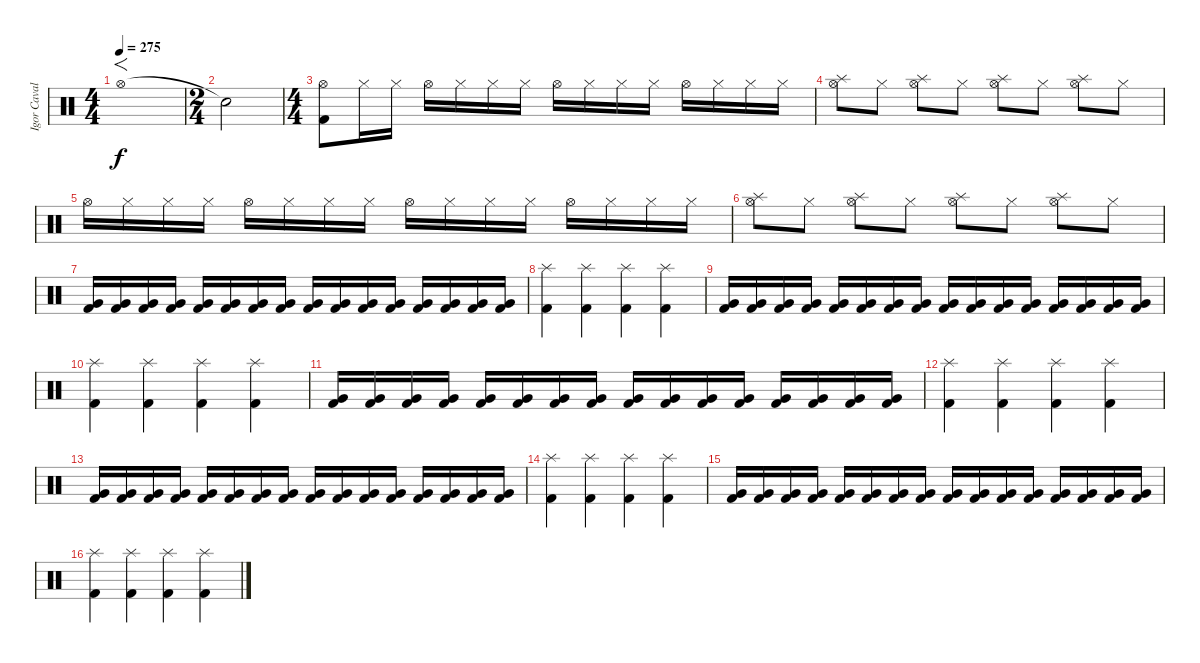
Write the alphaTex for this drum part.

\track ("Igor Cavalera" "Igor Caval") {instrument percussion}
\staff {score}
\articulation defaults
\ts (4 4)
\tempo 275
\tempo 230
\tempo 275
\clef neutral
\ks c "Hi-Hat (open)".1{f dy f}
|
\ts (2 4)
"Snare (hit)"{t}.2 |
\ts (4 4)
("Hi-Hat (open)" "Kick (hit) 2").8 "Hi-Hat (closed)".16 "Hi-Hat (closed)".16 "Hi-Hat (open)".16 "Hi-Hat (closed)".16 "Hi-Hat (closed)".16 "Hi-Hat (closed)".16 "Hi-Hat (open)".16 "Hi-Hat (closed)".16 "Hi-Hat (closed)".16 "Hi-Hat (closed)".16 "Hi-Hat (open)".16 "Hi-Hat (closed)".16 "Hi-Hat (closed)".16 "Hi-Hat (closed)".16 |
("Splash (hit)" "Hi-Hat (open)").8 "Hi-Hat (closed)".8 ("Splash (hit)" "Hi-Hat (open)").8 "Hi-Hat (closed)".8 ("Splash (hit)" "Hi-Hat (open)").8 "Hi-Hat (closed)".8 ("Splash (hit)" "Hi-Hat (open)").8 "Hi-Hat (closed)".8 |
"Hi-Hat (open)".16 "Hi-Hat (closed)".16 "Hi-Hat (closed)".16 "Hi-Hat (closed)".16 "Hi-Hat (open)".16 "Hi-Hat (closed)".16 "Hi-Hat (closed)".16 "Hi-Hat (closed)".16 "Hi-Hat (open)".16 "Hi-Hat (closed)".16 "Hi-Hat (closed)".16 "Hi-Hat (closed)".16 "Hi-Hat (open)".16 "Hi-Hat (closed)".16 "Hi-Hat (closed)".16 "Hi-Hat (closed)".16 |
("Splash (hit)" "Hi-Hat (open)").8 "Hi-Hat (closed)".8 ("Splash (hit)" "Hi-Hat (open)").8 "Hi-Hat (closed)".8 ("Splash (hit)" "Hi-Hat (open)").8 "Hi-Hat (closed)".8 ("Splash (hit)" "Hi-Hat (open)").8 "Hi-Hat (closed)".8 |
("Kick (hit) 2" "Very Low Tom (hit)").16 ("Kick (hit) 2" "Very Low Tom (hit)").16 ("Kick (hit) 2" "Very Low Tom (hit)").16 ("Kick (hit) 2" "Very Low Tom (hit)").16 ("Kick (hit) 2" "Very Low Tom (hit)").16 ("Kick (hit) 2" "Very Low Tom (hit)").16 ("Kick (hit) 2" "Very Low Tom (hit)").16 ("Kick (hit) 2" "Very Low Tom (hit)").16 ("Kick (hit) 2" "Very Low Tom (hit)").16 ("Kick (hit) 2" "Very Low Tom (hit)").16 ("Kick (hit) 2" "Very Low Tom (hit)").16 ("Kick (hit) 2" "Very Low Tom (hit)").16 ("Kick (hit) 2" "Very Low Tom (hit)").16 ("Kick (hit) 2" "Very Low Tom (hit)").16 ("Kick (hit) 2" "Very Low Tom (hit)").16 ("Kick (hit) 2" "Very Low Tom (hit)").16 |
("Splash (hit)" "Kick (hit) 2").4 ("Splash (hit)" "Kick (hit) 2").4 ("Splash (hit)" "Kick (hit) 2").4 ("Splash (hit)" "Kick (hit) 2").4 |
("Kick (hit) 2" "Very Low Tom (hit)").16 ("Kick (hit) 2" "Very Low Tom (hit)").16 ("Kick (hit) 2" "Very Low Tom (hit)").16 ("Kick (hit) 2" "Very Low Tom (hit)").16 ("Kick (hit) 2" "Very Low Tom (hit)").16 ("Kick (hit) 2" "Very Low Tom (hit)").16 ("Kick (hit) 2" "Very Low Tom (hit)").16 ("Kick (hit) 2" "Very Low Tom (hit)").16 ("Kick (hit) 2" "Very Low Tom (hit)").16 ("Kick (hit) 2" "Very Low Tom (hit)").16 ("Kick (hit) 2" "Very Low Tom (hit)").16 ("Kick (hit) 2" "Very Low Tom (hit)").16 ("Kick (hit) 2" "Very Low Tom (hit)").16 ("Kick (hit) 2" "Very Low Tom (hit)").16 ("Kick (hit) 2" "Very Low Tom (hit)").16 ("Kick (hit) 2" "Very Low Tom (hit)").16 |
("Splash (hit)" "Kick (hit) 2").4 ("Splash (hit)" "Kick (hit) 2").4 ("Splash (hit)" "Kick (hit) 2").4 ("Splash (hit)" "Kick (hit) 2").4 |
("Kick (hit) 2" "Very Low Tom (hit)").16 ("Kick (hit) 2" "Very Low Tom (hit)").16 ("Kick (hit) 2" "Very Low Tom (hit)").16 ("Kick (hit) 2" "Very Low Tom (hit)").16 ("Kick (hit) 2" "Very Low Tom (hit)").16 ("Kick (hit) 2" "Very Low Tom (hit)").16 ("Kick (hit) 2" "Very Low Tom (hit)").16 ("Kick (hit) 2" "Very Low Tom (hit)").16 ("Kick (hit) 2" "Very Low Tom (hit)").16 ("Kick (hit) 2" "Very Low Tom (hit)").16 ("Kick (hit) 2" "Very Low Tom (hit)").16 ("Kick (hit) 2" "Very Low Tom (hit)").16 ("Kick (hit) 2" "Very Low Tom (hit)").16 ("Kick (hit) 2" "Very Low Tom (hit)").16 ("Kick (hit) 2" "Very Low Tom (hit)").16 ("Kick (hit) 2" "Very Low Tom (hit)").16 |
("Splash (hit)" "Kick (hit) 2").4 ("Splash (hit)" "Kick (hit) 2").4 ("Splash (hit)" "Kick (hit) 2").4 ("Splash (hit)" "Kick (hit) 2").4 |
("Kick (hit) 2" "Very Low Tom (hit)").16 ("Kick (hit) 2" "Very Low Tom (hit)").16 ("Kick (hit) 2" "Very Low Tom (hit)").16 ("Kick (hit) 2" "Very Low Tom (hit)").16 ("Kick (hit) 2" "Very Low Tom (hit)").16 ("Kick (hit) 2" "Very Low Tom (hit)").16 ("Kick (hit) 2" "Very Low Tom (hit)").16 ("Kick (hit) 2" "Very Low Tom (hit)").16 ("Kick (hit) 2" "Very Low Tom (hit)").16 ("Kick (hit) 2" "Very Low Tom (hit)").16 ("Kick (hit) 2" "Very Low Tom (hit)").16 ("Kick (hit) 2" "Very Low Tom (hit)").16 ("Kick (hit) 2" "Very Low Tom (hit)").16 ("Kick (hit) 2" "Very Low Tom (hit)").16 ("Kick (hit) 2" "Very Low Tom (hit)").16 ("Kick (hit) 2" "Very Low Tom (hit)").16 |
("Splash (hit)" "Kick (hit) 2").4 ("Splash (hit)" "Kick (hit) 2").4 ("Splash (hit)" "Kick (hit) 2").4 ("Splash (hit)" "Kick (hit) 2").4 |
("Kick (hit) 2" "Very Low Tom (hit)").16 ("Kick (hit) 2" "Very Low Tom (hit)").16 ("Kick (hit) 2" "Very Low Tom (hit)").16 ("Kick (hit) 2" "Very Low Tom (hit)").16 ("Kick (hit) 2" "Very Low Tom (hit)").16 ("Kick (hit) 2" "Very Low Tom (hit)").16 ("Kick (hit) 2" "Very Low Tom (hit)").16 ("Kick (hit) 2" "Very Low Tom (hit)").16 ("Kick (hit) 2" "Very Low Tom (hit)").16 ("Kick (hit) 2" "Very Low Tom (hit)").16 ("Kick (hit) 2" "Very Low Tom (hit)").16 ("Kick (hit) 2" "Very Low Tom (hit)").16 ("Kick (hit) 2" "Very Low Tom (hit)").16 ("Kick (hit) 2" "Very Low Tom (hit)").16 ("Kick (hit) 2" "Very Low Tom (hit)").16 ("Kick (hit) 2" "Very Low Tom (hit)").16 |
("Splash (hit)" "Kick (hit) 2").4 ("Splash (hit)" "Kick (hit) 2").4 ("Splash (hit)" "Kick (hit) 2").4 ("Splash (hit)" "Kick (hit) 2").4
